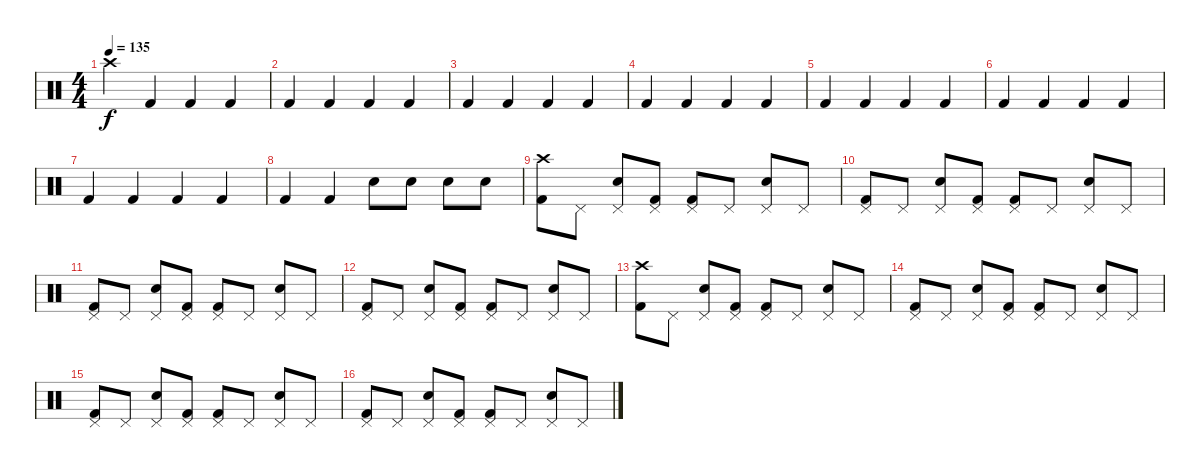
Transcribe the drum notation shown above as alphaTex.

\track "" {instrument percussion}
\staff {score}
\articulation defaults
\ts (4 4)
\tempo 135
\clef neutral
\ks c "Crash high (hit)".4{dy f} "Kick (hit) 2".4 "Kick (hit) 2".4 "Kick (hit) 2".4
|
"Kick (hit) 2".4 "Kick (hit) 2".4 "Kick (hit) 2".4 "Kick (hit) 2".4 |
"Kick (hit) 2".4 "Kick (hit) 2".4 "Kick (hit) 2".4 "Kick (hit) 2".4 |
"Kick (hit) 2".4 "Kick (hit) 2".4 "Kick (hit) 2".4 "Kick (hit) 2".4 |
"Kick (hit) 2".4 "Kick (hit) 2".4 "Kick (hit) 2".4 "Kick (hit) 2".4 |
"Kick (hit) 2".4 "Kick (hit) 2".4 "Kick (hit) 2".4 "Kick (hit) 2".4 |
"Kick (hit) 2".4 "Kick (hit) 2".4 "Kick (hit) 2".4 "Kick (hit) 2".4 |
"Kick (hit) 2".4 "Kick (hit) 2".4 "Snare (hit) 2".8 "Snare (hit) 2".8 "Snare (hit) 2".8 "Snare (hit) 2".8 |
("Crash high (hit)" "Kick (hit) 2").8 "Pedal Hi-Hat (hit)".8 ("Pedal Hi-Hat (hit)" "Snare (hit) 2").8 ("Pedal Hi-Hat (hit)" "Kick (hit) 2").8 ("Pedal Hi-Hat (hit)" "Kick (hit) 2").8 "Pedal Hi-Hat (hit)".8 ("Pedal Hi-Hat (hit)" "Snare (hit) 2").8 "Pedal Hi-Hat (hit)".8 |
("Pedal Hi-Hat (hit)" "Kick (hit) 2").8 "Pedal Hi-Hat (hit)".8 ("Pedal Hi-Hat (hit)" "Snare (hit) 2").8 ("Pedal Hi-Hat (hit)" "Kick (hit) 2").8 ("Pedal Hi-Hat (hit)" "Kick (hit) 2").8 "Pedal Hi-Hat (hit)".8 ("Pedal Hi-Hat (hit)" "Snare (hit) 2").8 "Pedal Hi-Hat (hit)".8 |
("Pedal Hi-Hat (hit)" "Kick (hit) 2").8 "Pedal Hi-Hat (hit)".8 ("Pedal Hi-Hat (hit)" "Snare (hit) 2").8 ("Pedal Hi-Hat (hit)" "Kick (hit) 2").8 ("Pedal Hi-Hat (hit)" "Kick (hit) 2").8 "Pedal Hi-Hat (hit)".8 ("Pedal Hi-Hat (hit)" "Snare (hit) 2").8 "Pedal Hi-Hat (hit)".8 |
("Pedal Hi-Hat (hit)" "Kick (hit) 2").8 "Pedal Hi-Hat (hit)".8 ("Pedal Hi-Hat (hit)" "Snare (hit) 2").8 ("Pedal Hi-Hat (hit)" "Kick (hit) 2").8 ("Pedal Hi-Hat (hit)" "Kick (hit) 2").8 "Pedal Hi-Hat (hit)".8 ("Pedal Hi-Hat (hit)" "Snare (hit) 2").8 "Pedal Hi-Hat (hit)".8 |
("Crash high (hit)" "Kick (hit) 2").8 "Pedal Hi-Hat (hit)".8 ("Pedal Hi-Hat (hit)" "Snare (hit) 2").8 ("Pedal Hi-Hat (hit)" "Kick (hit) 2").8 ("Pedal Hi-Hat (hit)" "Kick (hit) 2").8 "Pedal Hi-Hat (hit)".8 ("Pedal Hi-Hat (hit)" "Snare (hit) 2").8 "Pedal Hi-Hat (hit)".8 |
("Pedal Hi-Hat (hit)" "Kick (hit) 2").8 "Pedal Hi-Hat (hit)".8 ("Pedal Hi-Hat (hit)" "Snare (hit) 2").8 ("Pedal Hi-Hat (hit)" "Kick (hit) 2").8 ("Pedal Hi-Hat (hit)" "Kick (hit) 2").8 "Pedal Hi-Hat (hit)".8 ("Pedal Hi-Hat (hit)" "Snare (hit) 2").8 "Pedal Hi-Hat (hit)".8 |
("Pedal Hi-Hat (hit)" "Kick (hit) 2").8 "Pedal Hi-Hat (hit)".8 ("Pedal Hi-Hat (hit)" "Snare (hit) 2").8 ("Pedal Hi-Hat (hit)" "Kick (hit) 2").8 ("Pedal Hi-Hat (hit)" "Kick (hit) 2").8 "Pedal Hi-Hat (hit)".8 ("Pedal Hi-Hat (hit)" "Snare (hit) 2").8 "Pedal Hi-Hat (hit)".8 |
("Pedal Hi-Hat (hit)" "Kick (hit) 2").8 "Pedal Hi-Hat (hit)".8 ("Pedal Hi-Hat (hit)" "Snare (hit) 2").8 ("Pedal Hi-Hat (hit)" "Kick (hit) 2").8 ("Pedal Hi-Hat (hit)" "Kick (hit) 2").8 "Pedal Hi-Hat (hit)".8 ("Pedal Hi-Hat (hit)" "Snare (hit) 2").8 "Pedal Hi-Hat (hit)".8
